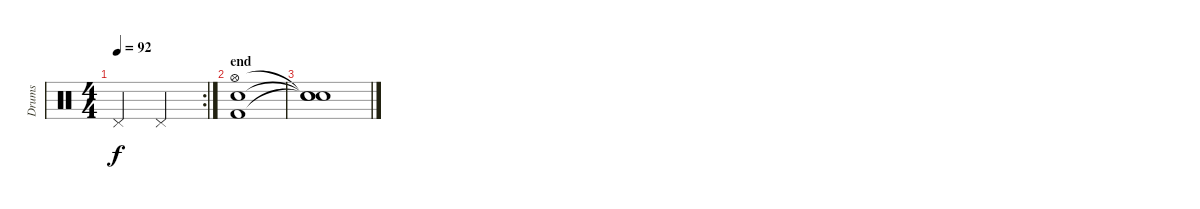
\track ("Drums" "Drums") {instrument percussion}
\staff {score}
\articulation defaults
\rc 2
\ts (4 4)
\tempo 92
\clef neutral
\ks c "Pedal Hi-Hat (hit)".2{dy f} "Pedal Hi-Hat (hit)".2
|
\section ("" "end")
("Hi-Hat (open)" "Snare (hit) 2" "Kick (hit) 2").1 |
("Snare (hit)"{t} "Snare (hit)"{t} "Snare (hit)"{t}).1
